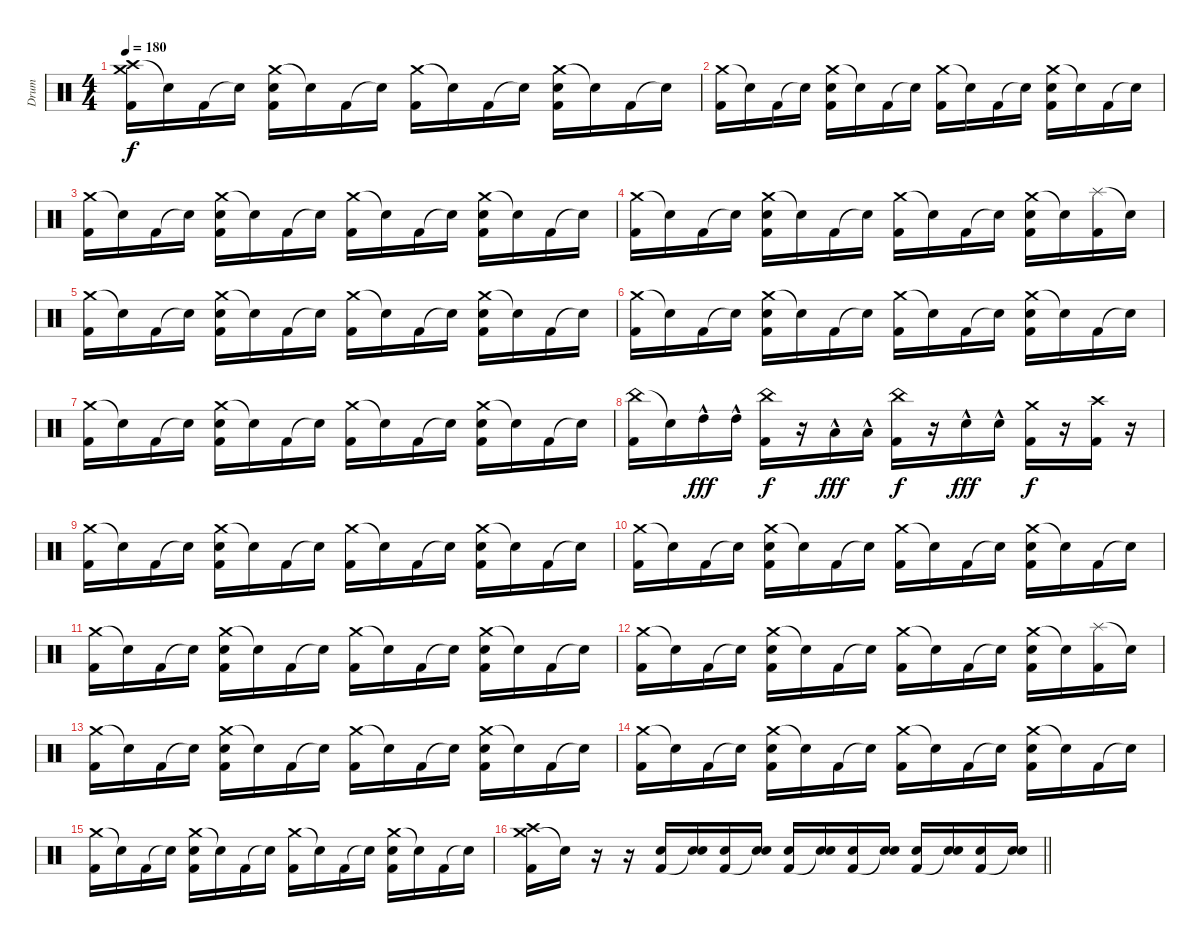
\track ("Drum" "Drum") {instrument percussion}
\staff {score}
\articulation defaults
\ts (4 4)
\tempo 180
\clef neutral
\ks c
("Crash high (hit)" "Crash medium (hit)" "Kick (hit) 2").16{dy f} "Snare (hit)"{t}.16 "Kick (hit) 2".16 "Snare (hit)"{t}.16 ("Crash medium (hit)" "Electric Snare (hit)" "Kick (hit) 2").16 "Snare (hit)"{t}.16 "Kick (hit) 2".16 "Snare (hit)"{t}.16 ("Crash medium (hit)" "Kick (hit) 2").16 "Snare (hit)"{t}.16 "Kick (hit) 2".16 "Snare (hit)"{t}.16 ("Crash medium (hit)" "Electric Snare (hit)" "Kick (hit) 2").16 "Snare (hit)"{t}.16 "Kick (hit) 2".16 "Snare (hit)"{t}.16 |
("Crash medium (hit)" "Kick (hit) 2").16 "Snare (hit)"{t}.16 "Kick (hit) 2".16 "Snare (hit)"{t}.16 ("Crash medium (hit)" "Electric Snare (hit)" "Kick (hit) 2").16 "Snare (hit)"{t}.16 "Kick (hit) 2".16 "Snare (hit)"{t}.16 ("Crash medium (hit)" "Kick (hit) 2").16 "Snare (hit)"{t}.16 "Kick (hit) 2".16 "Snare (hit)"{t}.16 ("Crash medium (hit)" "Electric Snare (hit)" "Kick (hit) 2").16 "Snare (hit)"{t}.16 "Kick (hit) 2".16 "Snare (hit)"{t}.16 |
("Crash medium (hit)" "Kick (hit) 2").16 "Snare (hit)"{t}.16 "Kick (hit) 2".16 "Snare (hit)"{t}.16 ("Crash medium (hit)" "Electric Snare (hit)" "Kick (hit) 2").16 "Snare (hit)"{t}.16 "Kick (hit) 2".16 "Snare (hit)"{t}.16 ("Crash medium (hit)" "Kick (hit) 2").16 "Snare (hit)"{t}.16 "Kick (hit) 2".16 "Snare (hit)"{t}.16 ("Crash medium (hit)" "Electric Snare (hit)" "Kick (hit) 2").16 "Snare (hit)"{t}.16 "Kick (hit) 2".16 "Snare (hit)"{t}.16 |
("Crash medium (hit)" "Kick (hit) 2").16 "Snare (hit)"{t}.16 "Kick (hit) 2".16 "Snare (hit)"{t}.16 ("Crash medium (hit)" "Electric Snare (hit)" "Kick (hit) 2").16 "Snare (hit)"{t}.16 "Kick (hit) 2".16 "Snare (hit)"{t}.16 ("Crash medium (hit)" "Kick (hit) 2").16 "Snare (hit)"{t}.16 "Kick (hit) 2".16 "Snare (hit)"{t}.16 ("Crash medium (hit)" "Electric Snare (hit)" "Kick (hit) 2").16 "Snare (hit)"{t}.16 ("Splash (hit)" "Kick (hit) 2").16 "Snare (hit)"{t}.16 |
("Crash medium (hit)" "Kick (hit) 2").16 "Snare (hit)"{t}.16 "Kick (hit) 2".16 "Snare (hit)"{t}.16 ("Crash medium (hit)" "Electric Snare (hit)" "Kick (hit) 2").16 "Snare (hit)"{t}.16 "Kick (hit) 2".16 "Snare (hit)"{t}.16 ("Crash medium (hit)" "Kick (hit) 2").16 "Snare (hit)"{t}.16 "Kick (hit) 2".16 "Snare (hit)"{t}.16 ("Crash medium (hit)" "Electric Snare (hit)" "Kick (hit) 2").16 "Snare (hit)"{t}.16 "Kick (hit) 2".16 "Snare (hit)"{t}.16 |
("Crash medium (hit)" "Kick (hit) 2").16 "Snare (hit)"{t}.16 "Kick (hit) 2".16 "Snare (hit)"{t}.16 ("Crash medium (hit)" "Electric Snare (hit)" "Kick (hit) 2").16 "Snare (hit)"{t}.16 "Kick (hit) 2".16 "Snare (hit)"{t}.16 ("Crash medium (hit)" "Kick (hit) 2").16 "Snare (hit)"{t}.16 "Kick (hit) 2".16 "Snare (hit)"{t}.16 ("Crash medium (hit)" "Electric Snare (hit)" "Kick (hit) 2").16 "Snare (hit)"{t}.16 "Kick (hit) 2".16 "Snare (hit)"{t}.16 |
("Crash medium (hit)" "Kick (hit) 2").16 "Snare (hit)"{t}.16 "Kick (hit) 2".16 "Snare (hit)"{t}.16 ("Crash medium (hit)" "Electric Snare (hit)" "Kick (hit) 2").16 "Snare (hit)"{t}.16 "Kick (hit) 2".16 "Snare (hit)"{t}.16 ("Crash medium (hit)" "Kick (hit) 2").16 "Snare (hit)"{t}.16 "Kick (hit) 2".16 "Snare (hit)"{t}.16 ("Crash medium (hit)" "Electric Snare (hit)" "Kick (hit) 2").16 "Snare (hit)"{t}.16 "Kick (hit) 2".16 "Snare (hit)"{t}.16 |
("China (hit)" "Kick (hit) 2").16 "Snare (hit)"{t}.16 "High Tom (hit)"{hac}.16{dy fff} "High Tom (hit)"{hac}.16 ("China (hit)" "Kick (hit) 2").16{dy f} r.16 "Low Tom (hit)"{hac}.16{dy fff} "Low Tom (hit)"{hac}.16 ("China (hit)" "Kick (hit) 2").16{dy f} r.16 "Electric Snare (hit)"{hac}.16{dy fff} "Electric Snare (hit)"{hac}.16 ("Crash medium (hit)" "Kick (hit) 2").16{dy f} r.16 ("Crash high (hit)" "Kick (hit) 2").16 r.16 |
("Crash medium (hit)" "Kick (hit) 2").16 "Snare (hit)"{t}.16 "Kick (hit) 2".16 "Snare (hit)"{t}.16 ("Crash medium (hit)" "Electric Snare (hit)" "Kick (hit) 2").16 "Snare (hit)"{t}.16 "Kick (hit) 2".16 "Snare (hit)"{t}.16 ("Crash medium (hit)" "Kick (hit) 2").16 "Snare (hit)"{t}.16 "Kick (hit) 2".16 "Snare (hit)"{t}.16 ("Crash medium (hit)" "Electric Snare (hit)" "Kick (hit) 2").16 "Snare (hit)"{t}.16 "Kick (hit) 2".16 "Snare (hit)"{t}.16 |
("Crash medium (hit)" "Kick (hit) 2").16 "Snare (hit)"{t}.16 "Kick (hit) 2".16 "Snare (hit)"{t}.16 ("Crash medium (hit)" "Electric Snare (hit)" "Kick (hit) 2").16 "Snare (hit)"{t}.16 "Kick (hit) 2".16 "Snare (hit)"{t}.16 ("Crash medium (hit)" "Kick (hit) 2").16 "Snare (hit)"{t}.16 "Kick (hit) 2".16 "Snare (hit)"{t}.16 ("Crash medium (hit)" "Electric Snare (hit)" "Kick (hit) 2").16 "Snare (hit)"{t}.16 "Kick (hit) 2".16 "Snare (hit)"{t}.16 |
("Crash medium (hit)" "Kick (hit) 2").16 "Snare (hit)"{t}.16 "Kick (hit) 2".16 "Snare (hit)"{t}.16 ("Crash medium (hit)" "Electric Snare (hit)" "Kick (hit) 2").16 "Snare (hit)"{t}.16 "Kick (hit) 2".16 "Snare (hit)"{t}.16 ("Crash medium (hit)" "Kick (hit) 2").16 "Snare (hit)"{t}.16 "Kick (hit) 2".16 "Snare (hit)"{t}.16 ("Crash medium (hit)" "Electric Snare (hit)" "Kick (hit) 2").16 "Snare (hit)"{t}.16 "Kick (hit) 2".16 "Snare (hit)"{t}.16 |
("Crash medium (hit)" "Kick (hit) 2").16 "Snare (hit)"{t}.16 "Kick (hit) 2".16 "Snare (hit)"{t}.16 ("Crash medium (hit)" "Electric Snare (hit)" "Kick (hit) 2").16 "Snare (hit)"{t}.16 "Kick (hit) 2".16 "Snare (hit)"{t}.16 ("Crash medium (hit)" "Kick (hit) 2").16 "Snare (hit)"{t}.16 "Kick (hit) 2".16 "Snare (hit)"{t}.16 ("Crash medium (hit)" "Electric Snare (hit)" "Kick (hit) 2").16 "Snare (hit)"{t}.16 ("Splash (hit)" "Kick (hit) 2").16 "Snare (hit)"{t}.16 |
("Crash medium (hit)" "Kick (hit) 2").16 "Snare (hit)"{t}.16 "Kick (hit) 2".16 "Snare (hit)"{t}.16 ("Crash medium (hit)" "Electric Snare (hit)" "Kick (hit) 2").16 "Snare (hit)"{t}.16 "Kick (hit) 2".16 "Snare (hit)"{t}.16 ("Crash medium (hit)" "Kick (hit) 2").16 "Snare (hit)"{t}.16 "Kick (hit) 2".16 "Snare (hit)"{t}.16 ("Crash medium (hit)" "Electric Snare (hit)" "Kick (hit) 2").16 "Snare (hit)"{t}.16 "Kick (hit) 2".16 "Snare (hit)"{t}.16 |
("Crash medium (hit)" "Kick (hit) 2").16 "Snare (hit)"{t}.16 "Kick (hit) 2".16 "Snare (hit)"{t}.16 ("Crash medium (hit)" "Electric Snare (hit)" "Kick (hit) 2").16 "Snare (hit)"{t}.16 "Kick (hit) 2".16 "Snare (hit)"{t}.16 ("Crash medium (hit)" "Kick (hit) 2").16 "Snare (hit)"{t}.16 "Kick (hit) 2".16 "Snare (hit)"{t}.16 ("Crash medium (hit)" "Electric Snare (hit)" "Kick (hit) 2").16 "Snare (hit)"{t}.16 "Kick (hit) 2".16 "Snare (hit)"{t}.16 |
("Crash medium (hit)" "Kick (hit) 2").16 "Snare (hit)"{t}.16 "Kick (hit) 2".16 "Snare (hit)"{t}.16 ("Crash medium (hit)" "Electric Snare (hit)" "Kick (hit) 2").16 "Snare (hit)"{t}.16 "Kick (hit) 2".16 "Snare (hit)"{t}.16 ("Crash medium (hit)" "Kick (hit) 2").16 "Snare (hit)"{t}.16 "Kick (hit) 2".16 "Snare (hit)"{t}.16 ("Crash medium (hit)" "Electric Snare (hit)" "Kick (hit) 2").16 "Snare (hit)"{t}.16 "Kick (hit) 2".16 "Snare (hit)"{t}.16 |
\barLineRight lightlight
("Crash medium (hit)" "Crash high (hit)" "Kick (hit) 2").16 "Snare (hit)"{t}.16 r.16 r.16 ("Electric Snare (hit)" "Kick (hit) 2").16 ("Electric Snare (hit)" "Snare (hit)"{t}).16 ("Electric Snare (hit)" "Kick (hit) 2").16 ("Electric Snare (hit)" "Snare (hit)"{t}).16 ("Electric Snare (hit)" "Kick (hit) 2").16 ("Electric Snare (hit)" "Snare (hit)"{t}).16 ("Electric Snare (hit)" "Kick (hit) 2").16 ("Electric Snare (hit)" "Snare (hit)"{t}).16 ("Electric Snare (hit)" "Kick (hit) 2").16 ("Electric Snare (hit)" "Snare (hit)"{t}).16 ("Electric Snare (hit)" "Kick (hit) 2").16 ("Electric Snare (hit)" "Snare (hit)"{t}).16
